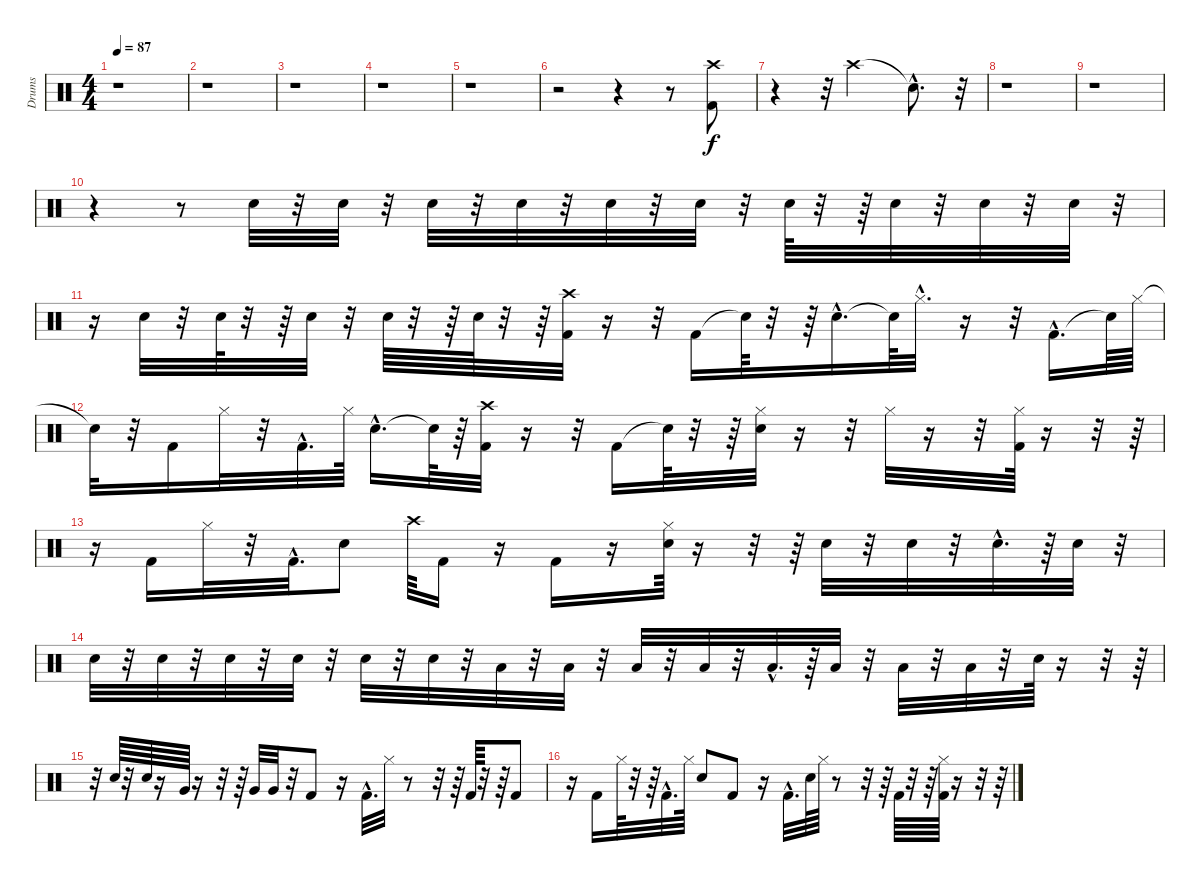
\track ("Drums" "Drums") {instrument percussion}
\staff {score}
\articulation defaults
\ts (4 4)
\tempo 87
\clef neutral
\ks c
r.1{dy f} |
r.1 |
r.1 |
r.1 |
r.1 |
r.2 r.4 r.8 ("Crash high (hit)" "Kick (hit) 2").8 |
r.4 r.32 "Crash high (hit)".2 "Snare (hit)"{hac t}.8{d} r.32 |
r.1 |
r.1 |
r.4 r.8 "Electric Snare (hit)".32 r.32 "Electric Snare (hit)".32 r.32 "Electric Snare (hit)".32 r.32 "Electric Snare (hit)".32 r.32 "Electric Snare (hit)".32 r.32 "Electric Snare (hit)".32 r.32 "Electric Snare (hit)".64 r.32 r.64 "Electric Snare (hit)".32 r.32 "Electric Snare (hit)".32 r.32 "Electric Snare (hit)".32 r.32 |
r.16 "Electric Snare (hit)".32 r.32 "Electric Snare (hit)".64 r.32 r.64 "Electric Snare (hit)".32 r.32 "Electric Snare (hit)".64 r.32 r.64 "Electric Snare (hit)".64 r.32 r.64 ("Kick (hit) 2" "Crash high (hit)").32 r.16 r.32 "Kick (hit) 2".16 "Snare (hit)"{t}.64 r.32 r.64 "Electric Snare (hit)"{hac}.16{d} "Snare (hit)"{t}.64 "Hi-Hat (closed)"{hac}.32{d} r.16 r.32 "Kick (hit) 2"{hac}.16{d} "Snare (hit)"{t}.64 "Hi-Hat (closed)".64 |
"Snare (hit)"{t}.32 r.32 "Kick (hit) 2".16 "Hi-Hat (closed)".32 r.32 "Kick (hit) 2"{hac}.32{d} "Hi-Hat (closed)".64 "Electric Snare (hit)"{hac}.16{d} "Snare (hit)"{t}.64 r.64 ("Kick (hit) 2" "Crash high (hit)").32 r.16 r.32 "Kick (hit) 2".16 "Snare (hit)"{t}.64 r.32 r.64 ("Electric Snare (hit)" "Hi-Hat (closed)").32 r.16 r.32 "Hi-Hat (closed)".32 r.16 r.32 ("Kick (hit) 2" "Hi-Hat (closed)").64 r.16 r.32 r.64 |
r.16 "Kick (hit) 2".16 "Hi-Hat (closed)".32 r.32 "Kick (hit) 2"{hac}.32{d} "Electric Snare (hit)".8 "Crash high (hit)".64 "Kick (hit) 2".16 r.16 "Kick (hit) 2".16 r.16 ("Electric Snare (hit)" "Hi-Hat (closed)").64 r.16 r.32 r.64 "Electric Snare (hit)".32 r.32 "Electric Snare (hit)".32 r.32 "Electric Snare (hit)"{hac}.32{d} r.64 "Electric Snare (hit)".32 r.32 |
"Electric Snare (hit)".32 r.32 "Electric Snare (hit)".32 r.32 "Electric Snare (hit)".32 r.32 "Electric Snare (hit)".32 r.32 "Electric Snare (hit)".32 r.32 "Electric Snare (hit)".32 r.32 "Low Tom (hit)".32 r.32 "Low Tom (hit)".32 r.32 "Low Tom (hit)".32 r.32 "Low Tom (hit)".32 r.32 "Low Tom (hit)"{hac}.32{d} r.64 "Low Tom (hit)".32 r.32 "Low Tom (hit)".32 r.32 "Low Tom (hit)".32 r.32 "Electric Snare (hit)".64 r.16 r.32 r.64 |
r.32 "Electric Snare (hit)".64 r.32 "Electric Snare (hit)".64 r.16 "Very Low Tom (hit)".64 r.16 r.32 r.64 "Very Low Tom (hit)".32 "Very Low Tom (hit)".32 r.32 "Kick (hit) 2".8 r.16 "Kick (hit) 2"{hac}.32{d} "Hi-Hat (closed)".32 r.8 r.32 r.64 "Kick (hit) 2".64 r.32 r.64 "Kick (hit) 2".8 |
r.16 "Kick (hit) 2".16 "Hi-Hat (closed)".64 r.32 r.64 "Kick (hit) 2"{hac}.32{d} "Hi-Hat (closed)".64 "Electric Snare (hit)".8 "Kick (hit) 2".8 r.16 "Kick (hit) 2"{hac}.32{d} "Electric Snare (hit)".64 "Hi-Hat (closed)".64 r.8 r.32 r.64 "Kick (hit) 2".64 r.32 r.64 ("Kick (hit) 2" "Hi-Hat (closed)").64 r.16 r.32 r.64
